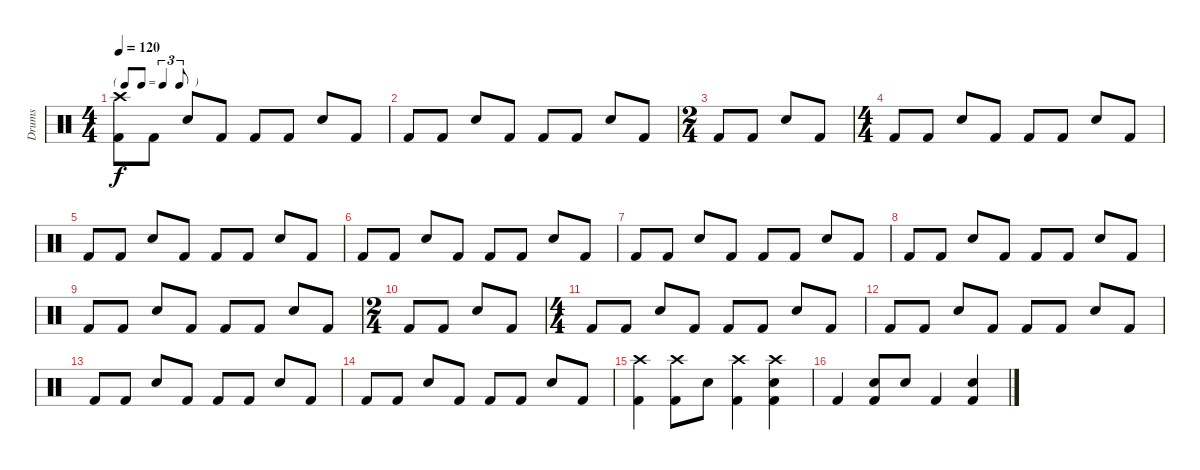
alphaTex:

\track ("Drums" "Drums") {instrument percussion}
\staff {score}
\articulation defaults
\ts (4 4)
\tf triplet8th
\tempo 120
\clef neutral
\ks c
("Crash high (hit)" "Kick (hit) 2").8{dy f} "Kick (hit) 2".8 "Snare (hit) 2".8 "Kick (hit) 2".8 "Kick (hit) 2".8 "Kick (hit) 2".8 "Snare (hit) 2".8 "Kick (hit) 2".8 |
"Kick (hit) 2".8 "Kick (hit) 2".8 "Snare (hit) 2".8 "Kick (hit) 2".8 "Kick (hit) 2".8 "Kick (hit) 2".8 "Snare (hit) 2".8 "Kick (hit) 2".8 |
\ts (2 4)
"Kick (hit) 2".8 "Kick (hit) 2".8 "Snare (hit) 2".8 "Kick (hit) 2".8 |
\ts (4 4)
"Kick (hit) 2".8 "Kick (hit) 2".8 "Snare (hit) 2".8 "Kick (hit) 2".8 "Kick (hit) 2".8 "Kick (hit) 2".8 "Snare (hit) 2".8 "Kick (hit) 2".8 |
"Kick (hit) 2".8 "Kick (hit) 2".8 "Snare (hit) 2".8 "Kick (hit) 2".8 "Kick (hit) 2".8 "Kick (hit) 2".8 "Snare (hit) 2".8 "Kick (hit) 2".8 |
"Kick (hit) 2".8 "Kick (hit) 2".8 "Snare (hit) 2".8 "Kick (hit) 2".8 "Kick (hit) 2".8 "Kick (hit) 2".8 "Snare (hit) 2".8 "Kick (hit) 2".8 |
"Kick (hit) 2".8 "Kick (hit) 2".8 "Snare (hit) 2".8 "Kick (hit) 2".8 "Kick (hit) 2".8 "Kick (hit) 2".8 "Snare (hit) 2".8 "Kick (hit) 2".8 |
"Kick (hit) 2".8 "Kick (hit) 2".8 "Snare (hit) 2".8 "Kick (hit) 2".8 "Kick (hit) 2".8 "Kick (hit) 2".8 "Snare (hit) 2".8 "Kick (hit) 2".8 |
"Kick (hit) 2".8 "Kick (hit) 2".8 "Snare (hit) 2".8 "Kick (hit) 2".8 "Kick (hit) 2".8 "Kick (hit) 2".8 "Snare (hit) 2".8 "Kick (hit) 2".8 |
\ts (2 4)
"Kick (hit) 2".8 "Kick (hit) 2".8 "Snare (hit) 2".8 "Kick (hit) 2".8 |
\ts (4 4)
"Kick (hit) 2".8 "Kick (hit) 2".8 "Snare (hit) 2".8 "Kick (hit) 2".8 "Kick (hit) 2".8 "Kick (hit) 2".8 "Snare (hit) 2".8 "Kick (hit) 2".8 |
"Kick (hit) 2".8 "Kick (hit) 2".8 "Snare (hit) 2".8 "Kick (hit) 2".8 "Kick (hit) 2".8 "Kick (hit) 2".8 "Snare (hit) 2".8 "Kick (hit) 2".8 |
"Kick (hit) 2".8 "Kick (hit) 2".8 "Snare (hit) 2".8 "Kick (hit) 2".8 "Kick (hit) 2".8 "Kick (hit) 2".8 "Snare (hit) 2".8 "Kick (hit) 2".8 |
"Kick (hit) 2".8 "Kick (hit) 2".8 "Snare (hit) 2".8 "Kick (hit) 2".8 "Kick (hit) 2".8 "Kick (hit) 2".8 "Snare (hit) 2".8 "Kick (hit) 2".8 |
("Crash high (hit)" "Kick (hit) 2").4 ("Crash high (hit)" "Kick (hit) 2").8 "Snare (hit) 2".8 ("Crash high (hit)" "Kick (hit) 2").4 ("Crash high (hit)" "Snare (hit) 2" "Kick (hit) 2").4 |
"Kick (hit) 2".4 ("Snare (hit) 2" "Kick (hit) 2").8 "Snare (hit) 2".8 "Kick (hit) 2".4 ("Snare (hit) 2" "Kick (hit) 2").4
